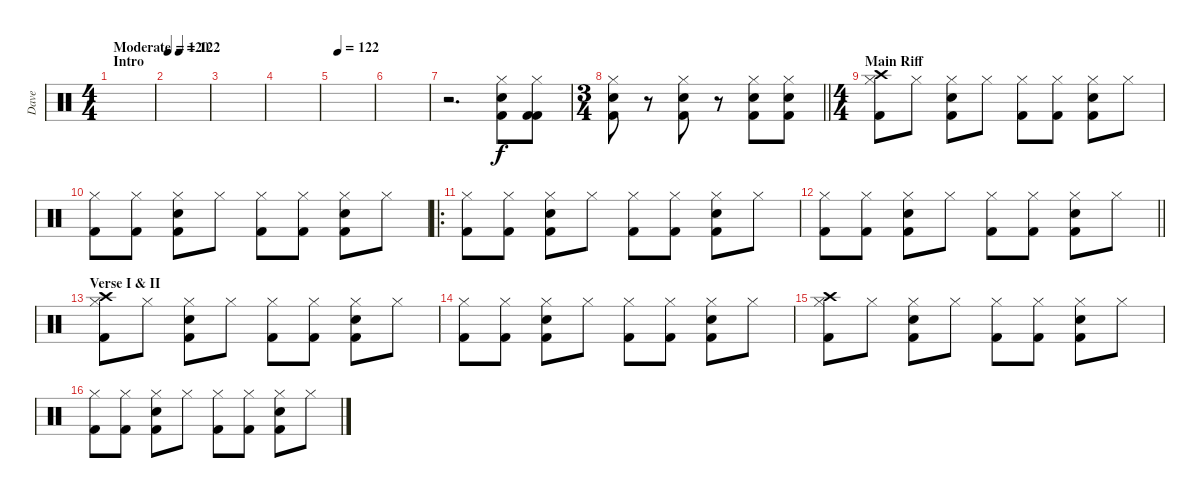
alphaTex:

\track ("Dave" "Dave") {instrument percussion}
\staff {score}
\articulation defaults
\ts (4 4)
\section ("" "Intro")
\tempo (122 "Moderate")
\tempo 119
\tempo (122 "Moderate")
\clef neutral
\ks c
|
\tempo 120
|
|
|
\tempo (122 0.125)
|
|
r.2{d} ("Hi-Hat (closed)" "Snare (hit) 2" "Kick (hit) 2").8 ("Hi-Hat (closed)" "Kick (hit) 2" "Kick (hit) 2").8 |
\ts (3 4)
\barLineRight lightlight
("Hi-Hat (closed)" "Snare (hit) 2" "Kick (hit) 2").8 r.8 ("Hi-Hat (closed)" "Snare (hit) 2" "Kick (hit) 2").8 r.8 ("Hi-Hat (closed)" "Snare (hit) 2" "Kick (hit) 2").8 ("Hi-Hat (closed)" "Snare (hit) 2" "Kick (hit) 2").8 |
\ts (4 4)
\section ("" "Main Riff")
("Crash high (hit)" "Hi-Hat (closed)" "Kick (hit) 2").8 "Hi-Hat (closed)".8 ("Hi-Hat (closed)" "Snare (hit) 2" "Kick (hit) 2").8 "Hi-Hat (closed)".8 ("Hi-Hat (closed)" "Kick (hit) 2").8 ("Hi-Hat (closed)" "Kick (hit) 2").8 ("Hi-Hat (closed)" "Snare (hit) 2" "Kick (hit) 2").8 "Hi-Hat (closed)".8 |
("Hi-Hat (closed)" "Kick (hit) 2").8 ("Hi-Hat (closed)" "Kick (hit) 2").8 ("Hi-Hat (closed)" "Snare (hit) 2" "Kick (hit) 2").8 "Hi-Hat (closed)".8 ("Hi-Hat (closed)" "Kick (hit) 2").8 ("Hi-Hat (closed)" "Kick (hit) 2").8 ("Hi-Hat (closed)" "Snare (hit) 2" "Kick (hit) 2").8 "Hi-Hat (closed)".8 |
\ro
("Hi-Hat (closed)" "Kick (hit) 2").8 ("Hi-Hat (closed)" "Kick (hit) 2").8 ("Hi-Hat (closed)" "Snare (hit) 2" "Kick (hit) 2").8 "Hi-Hat (closed)".8 ("Hi-Hat (closed)" "Kick (hit) 2").8 ("Hi-Hat (closed)" "Kick (hit) 2").8 ("Hi-Hat (closed)" "Snare (hit) 2" "Kick (hit) 2").8 "Hi-Hat (closed)".8 |
\barLineRight lightlight
("Hi-Hat (closed)" "Kick (hit) 2").8 ("Hi-Hat (closed)" "Kick (hit) 2").8 ("Hi-Hat (closed)" "Snare (hit) 2" "Kick (hit) 2").8 "Hi-Hat (closed)".8 ("Hi-Hat (closed)" "Kick (hit) 2").8 ("Hi-Hat (closed)" "Kick (hit) 2").8 ("Hi-Hat (closed)" "Snare (hit) 2" "Kick (hit) 2").8 "Hi-Hat (closed)".8 |
\section ("" "Verse I & II")
("Crash high (hit)" "Hi-Hat (closed)" "Kick (hit) 2").8 "Hi-Hat (closed)".8 ("Hi-Hat (closed)" "Snare (hit) 2" "Kick (hit) 2").8 "Hi-Hat (closed)".8 ("Hi-Hat (closed)" "Kick (hit) 2").8 ("Hi-Hat (closed)" "Kick (hit) 2").8 ("Hi-Hat (closed)" "Snare (hit) 2" "Kick (hit) 2").8 "Hi-Hat (closed)".8 |
("Hi-Hat (closed)" "Kick (hit) 2").8 ("Hi-Hat (closed)" "Kick (hit) 2").8 ("Hi-Hat (closed)" "Snare (hit) 2" "Kick (hit) 2").8 "Hi-Hat (closed)".8 ("Hi-Hat (closed)" "Kick (hit) 2").8 ("Hi-Hat (closed)" "Kick (hit) 2").8 ("Hi-Hat (closed)" "Snare (hit) 2" "Kick (hit) 2").8 "Hi-Hat (closed)".8 |
("Crash high (hit)" "Hi-Hat (closed)" "Kick (hit) 2").8 "Hi-Hat (closed)".8 ("Hi-Hat (closed)" "Snare (hit) 2" "Kick (hit) 2").8 "Hi-Hat (closed)".8 ("Hi-Hat (closed)" "Kick (hit) 2").8 ("Hi-Hat (closed)" "Kick (hit) 2").8 ("Hi-Hat (closed)" "Snare (hit) 2" "Kick (hit) 2").8 "Hi-Hat (closed)".8 |
("Hi-Hat (closed)" "Kick (hit) 2").8 ("Hi-Hat (closed)" "Kick (hit) 2").8 ("Hi-Hat (closed)" "Snare (hit) 2" "Kick (hit) 2").8 "Hi-Hat (closed)".8 ("Hi-Hat (closed)" "Kick (hit) 2").8 ("Hi-Hat (closed)" "Kick (hit) 2").8 ("Hi-Hat (closed)" "Snare (hit) 2" "Kick (hit) 2").8 "Hi-Hat (closed)".8
